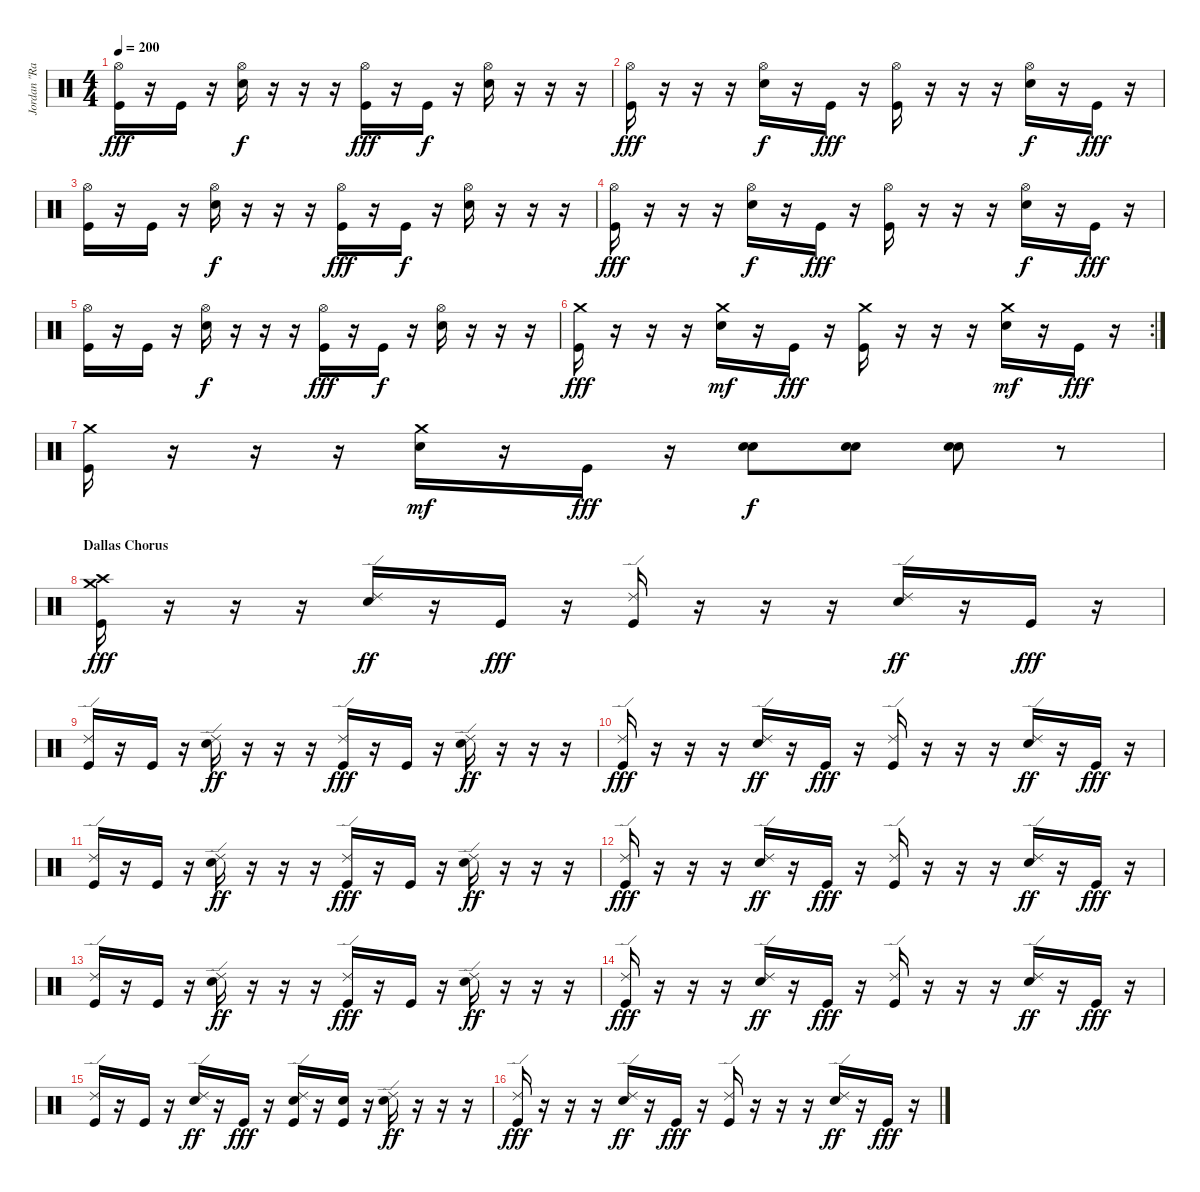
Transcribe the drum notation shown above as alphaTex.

\track ("Jordan \"Ratbeard\" Hastings" "Jordan \"Ra") {instrument percussion}
\staff {score}
\articulation defaults
\ts (4 4)
\tempo 200
\clef neutral
\ks c
("Hi-Hat (open)" "Kick (hit)").16{dy fff} r.16 "Kick (hit)".16 r.16 ("Hi-Hat (open)" "Electric Snare (hit)").16{dy f} r.16 r.16 r.16 ("Hi-Hat (open)" "Kick (hit)").16{dy fff} r.16 "Kick (hit)".16{dy f} r.16 ("Hi-Hat (open)" "Electric Snare (hit)").16 r.16 r.16 r.16 |
("Hi-Hat (open)" "Kick (hit)").16{dy fff} r.16 r.16 r.16 ("Hi-Hat (open)" "Electric Snare (hit)").16{dy f} r.16 "Kick (hit)".16{dy fff} r.16 ("Hi-Hat (open)" "Kick (hit)").16 r.16 r.16 r.16 ("Hi-Hat (open)" "Electric Snare (hit)").16{dy f} r.16 "Kick (hit)".16{dy fff} r.16 |
("Hi-Hat (open)" "Kick (hit)").16 r.16 "Kick (hit)".16 r.16 ("Hi-Hat (open)" "Electric Snare (hit)").16{dy f} r.16 r.16 r.16 ("Hi-Hat (open)" "Kick (hit)").16{dy fff} r.16 "Kick (hit)".16{dy f} r.16 ("Hi-Hat (open)" "Electric Snare (hit)").16 r.16 r.16 r.16 |
("Hi-Hat (open)" "Kick (hit)").16{dy fff} r.16 r.16 r.16 ("Hi-Hat (open)" "Electric Snare (hit)").16{dy f} r.16 "Kick (hit)".16{dy fff} r.16 ("Hi-Hat (open)" "Kick (hit)").16 r.16 r.16 r.16 ("Hi-Hat (open)" "Electric Snare (hit)").16{dy f} r.16 "Kick (hit)".16{dy fff} r.16 |
("Hi-Hat (open)" "Kick (hit)").16 r.16 "Kick (hit)".16 r.16 ("Hi-Hat (open)" "Electric Snare (hit)").16{dy f} r.16 r.16 r.16 ("Hi-Hat (open)" "Kick (hit)").16{dy fff} r.16 "Kick (hit)".16{dy f} r.16 ("Hi-Hat (open)" "Electric Snare (hit)").16 r.16 r.16 r.16 |
\rc 2
("Crash medium (hit)" "Kick (hit)").16{dy fff} r.16 r.16 r.16 ("Crash medium (hit)" "Electric Snare (hit)").16{dy mf} r.16 "Kick (hit)".16{dy fff} r.16 ("Crash medium (hit)" "Kick (hit)").16 r.16 r.16 r.16 ("Crash medium (hit)" "Electric Snare (hit)").16{dy mf} r.16 "Kick (hit)".16{dy fff} r.16 |
("Crash medium (hit)" "Kick (hit)").16 r.16 r.16 r.16 ("Crash medium (hit)" "Electric Snare (hit)").16{dy mf} r.16 "Kick (hit)".16{dy fff} r.16 ("Electric Snare (hit)" "Electric Snare (hit)").8{dy f} ("Electric Snare (hit)" "Electric Snare (hit)").8 ("Electric Snare (hit)" "Electric Snare (hit)").8 r.8 |
\section ("" "Dallas Chorus")
("Crash high (hit)" "Crash medium (hit)" "Kick (hit)").16{dy fff} r.16 r.16 r.16 ("Ride (edge) 2" "Electric Snare (hit)").16{dy ff} r.16 "Kick (hit)".16{dy fff} r.16 ("Ride (edge) 2" "Kick (hit)").16 r.16 r.16 r.16 ("Ride (edge) 2" "Electric Snare (hit)").16{dy ff} r.16 "Kick (hit)".16{dy fff} r.16 |
("Ride (edge) 2" "Kick (hit)").16 r.16 "Kick (hit)".16 r.16 ("Ride (edge) 2" "Electric Snare (hit)").16{dy ff} r.16 r.16 r.16 ("Ride (edge) 2" "Kick (hit)").16{dy fff} r.16 "Kick (hit)".16 r.16 ("Ride (edge) 2" "Electric Snare (hit)").16{dy ff} r.16 r.16 r.16 |
("Ride (edge) 2" "Kick (hit)").16{dy fff} r.16 r.16 r.16 ("Ride (edge) 2" "Electric Snare (hit)").16{dy ff} r.16 "Kick (hit)".16{dy fff} r.16 ("Ride (edge) 2" "Kick (hit)").16 r.16 r.16 r.16 ("Ride (edge) 2" "Electric Snare (hit)").16{dy ff} r.16 "Kick (hit)".16{dy fff} r.16 |
("Ride (edge) 2" "Kick (hit)").16 r.16 "Kick (hit)".16 r.16 ("Ride (edge) 2" "Electric Snare (hit)").16{dy ff} r.16 r.16 r.16 ("Ride (edge) 2" "Kick (hit)").16{dy fff} r.16 "Kick (hit)".16 r.16 ("Ride (edge) 2" "Electric Snare (hit)").16{dy ff} r.16 r.16 r.16 |
("Ride (edge) 2" "Kick (hit)").16{dy fff} r.16 r.16 r.16 ("Ride (edge) 2" "Electric Snare (hit)").16{dy ff} r.16 "Kick (hit)".16{dy fff} r.16 ("Ride (edge) 2" "Kick (hit)").16 r.16 r.16 r.16 ("Ride (edge) 2" "Electric Snare (hit)").16{dy ff} r.16 "Kick (hit)".16{dy fff} r.16 |
("Ride (edge) 2" "Kick (hit)").16 r.16 "Kick (hit)".16 r.16 ("Ride (edge) 2" "Electric Snare (hit)").16{dy ff} r.16 r.16 r.16 ("Ride (edge) 2" "Kick (hit)").16{dy fff} r.16 "Kick (hit)".16 r.16 ("Ride (edge) 2" "Electric Snare (hit)").16{dy ff} r.16 r.16 r.16 |
("Ride (edge) 2" "Kick (hit)").16{dy fff} r.16 r.16 r.16 ("Ride (edge) 2" "Electric Snare (hit)").16{dy ff} r.16 "Kick (hit)".16{dy fff} r.16 ("Ride (edge) 2" "Kick (hit)").16 r.16 r.16 r.16 ("Ride (edge) 2" "Electric Snare (hit)").16{dy ff} r.16 "Kick (hit)".16{dy fff} r.16 |
("Ride (edge) 2" "Kick (hit)").16 r.16 "Kick (hit)".16 r.16 ("Ride (edge) 2" "Electric Snare (hit)").16{dy ff} r.16 "Kick (hit)".16{dy fff} r.16 ("Ride (edge) 2" "Electric Snare (hit)" "Kick (hit)").16 r.16 ("Electric Snare (hit)" "Kick (hit)").16 r.16 ("Ride (edge) 2" "Electric Snare (hit)").16{dy ff} r.16 r.16 r.16 |
("Ride (edge) 2" "Kick (hit)").16{dy fff} r.16 r.16 r.16 ("Ride (edge) 2" "Electric Snare (hit)").16{dy ff} r.16 "Kick (hit)".16{dy fff} r.16 ("Ride (edge) 2" "Kick (hit)").16 r.16 r.16 r.16 ("Ride (edge) 2" "Electric Snare (hit)").16{dy ff} r.16 "Kick (hit)".16{dy fff} r.16
